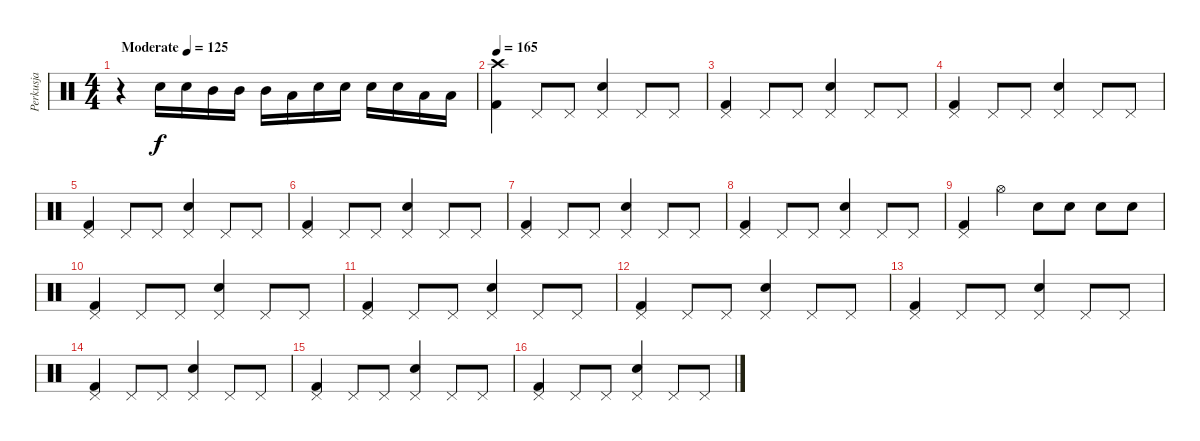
\track ("Perkusja" "Perkusja") {instrument percussion}
\staff {score}
\articulation defaults
\ts (4 4)
\tempo (125 "Moderate")
\clef neutral
\ks c
r.4{dy f} "Snare (hit) 2".16 "Snare (hit) 2".16 "Mid Tom (hit)".16 "Mid Tom (hit)".16 "Mid Tom (hit)".16 "Low Tom (hit)".16 "Snare (hit) 2".16 "Snare (hit) 2".16 "Snare (hit) 2".16 "Snare (hit) 2".16 "Low Tom (hit)".16 "Low Tom (hit)".16 |
\tempo 165
("Crash high (hit)" "Kick (hit) 2").4 "Pedal Hi-Hat (hit)".8 "Pedal Hi-Hat (hit)".8 ("Pedal Hi-Hat (hit)" "Snare (hit) 2").4 "Pedal Hi-Hat (hit)".8 "Pedal Hi-Hat (hit)".8 |
("Pedal Hi-Hat (hit)" "Kick (hit) 2").4 "Pedal Hi-Hat (hit)".8 "Pedal Hi-Hat (hit)".8 ("Pedal Hi-Hat (hit)" "Snare (hit) 2").4 "Pedal Hi-Hat (hit)".8 "Pedal Hi-Hat (hit)".8 |
("Pedal Hi-Hat (hit)" "Kick (hit) 2").4 "Pedal Hi-Hat (hit)".8 "Pedal Hi-Hat (hit)".8 ("Pedal Hi-Hat (hit)" "Snare (hit) 2").4 "Pedal Hi-Hat (hit)".8 "Pedal Hi-Hat (hit)".8 |
("Pedal Hi-Hat (hit)" "Kick (hit) 2").4 "Pedal Hi-Hat (hit)".8 "Pedal Hi-Hat (hit)".8 ("Pedal Hi-Hat (hit)" "Snare (hit) 2").4 "Pedal Hi-Hat (hit)".8 "Pedal Hi-Hat (hit)".8 |
("Pedal Hi-Hat (hit)" "Kick (hit) 2").4 "Pedal Hi-Hat (hit)".8 "Pedal Hi-Hat (hit)".8 ("Pedal Hi-Hat (hit)" "Snare (hit) 2").4 "Pedal Hi-Hat (hit)".8 "Pedal Hi-Hat (hit)".8 |
("Pedal Hi-Hat (hit)" "Kick (hit) 2").4 "Pedal Hi-Hat (hit)".8 "Pedal Hi-Hat (hit)".8 ("Pedal Hi-Hat (hit)" "Snare (hit) 2").4 "Pedal Hi-Hat (hit)".8 "Pedal Hi-Hat (hit)".8 |
("Pedal Hi-Hat (hit)" "Kick (hit) 2").4 "Pedal Hi-Hat (hit)".8 "Pedal Hi-Hat (hit)".8 ("Pedal Hi-Hat (hit)" "Snare (hit) 2").4 "Pedal Hi-Hat (hit)".8 "Pedal Hi-Hat (hit)".8 |
("Pedal Hi-Hat (hit)" "Kick (hit) 2").4 "Hi-Hat (open)".4 "Snare (hit) 2".8 "Snare (hit) 2".8 "Snare (hit) 2".8 "Snare (hit) 2".8 |
("Pedal Hi-Hat (hit)" "Kick (hit) 2").4 "Pedal Hi-Hat (hit)".8 "Pedal Hi-Hat (hit)".8 ("Pedal Hi-Hat (hit)" "Snare (hit) 2").4 "Pedal Hi-Hat (hit)".8 "Pedal Hi-Hat (hit)".8 |
("Pedal Hi-Hat (hit)" "Kick (hit) 2").4 "Pedal Hi-Hat (hit)".8 "Pedal Hi-Hat (hit)".8 ("Pedal Hi-Hat (hit)" "Snare (hit) 2").4 "Pedal Hi-Hat (hit)".8 "Pedal Hi-Hat (hit)".8 |
("Pedal Hi-Hat (hit)" "Kick (hit) 2").4 "Pedal Hi-Hat (hit)".8 "Pedal Hi-Hat (hit)".8 ("Pedal Hi-Hat (hit)" "Snare (hit) 2").4 "Pedal Hi-Hat (hit)".8 "Pedal Hi-Hat (hit)".8 |
("Pedal Hi-Hat (hit)" "Kick (hit) 2").4 "Pedal Hi-Hat (hit)".8 "Pedal Hi-Hat (hit)".8 ("Pedal Hi-Hat (hit)" "Snare (hit) 2").4 "Pedal Hi-Hat (hit)".8 "Pedal Hi-Hat (hit)".8 |
("Pedal Hi-Hat (hit)" "Kick (hit) 2").4 "Pedal Hi-Hat (hit)".8 "Pedal Hi-Hat (hit)".8 ("Pedal Hi-Hat (hit)" "Snare (hit) 2").4 "Pedal Hi-Hat (hit)".8 "Pedal Hi-Hat (hit)".8 |
("Pedal Hi-Hat (hit)" "Kick (hit) 2").4 "Pedal Hi-Hat (hit)".8 "Pedal Hi-Hat (hit)".8 ("Pedal Hi-Hat (hit)" "Snare (hit) 2").4 "Pedal Hi-Hat (hit)".8 "Pedal Hi-Hat (hit)".8 |
("Pedal Hi-Hat (hit)" "Kick (hit) 2").4 "Pedal Hi-Hat (hit)".8 "Pedal Hi-Hat (hit)".8 ("Pedal Hi-Hat (hit)" "Snare (hit) 2").4 "Pedal Hi-Hat (hit)".8 "Pedal Hi-Hat (hit)".8
